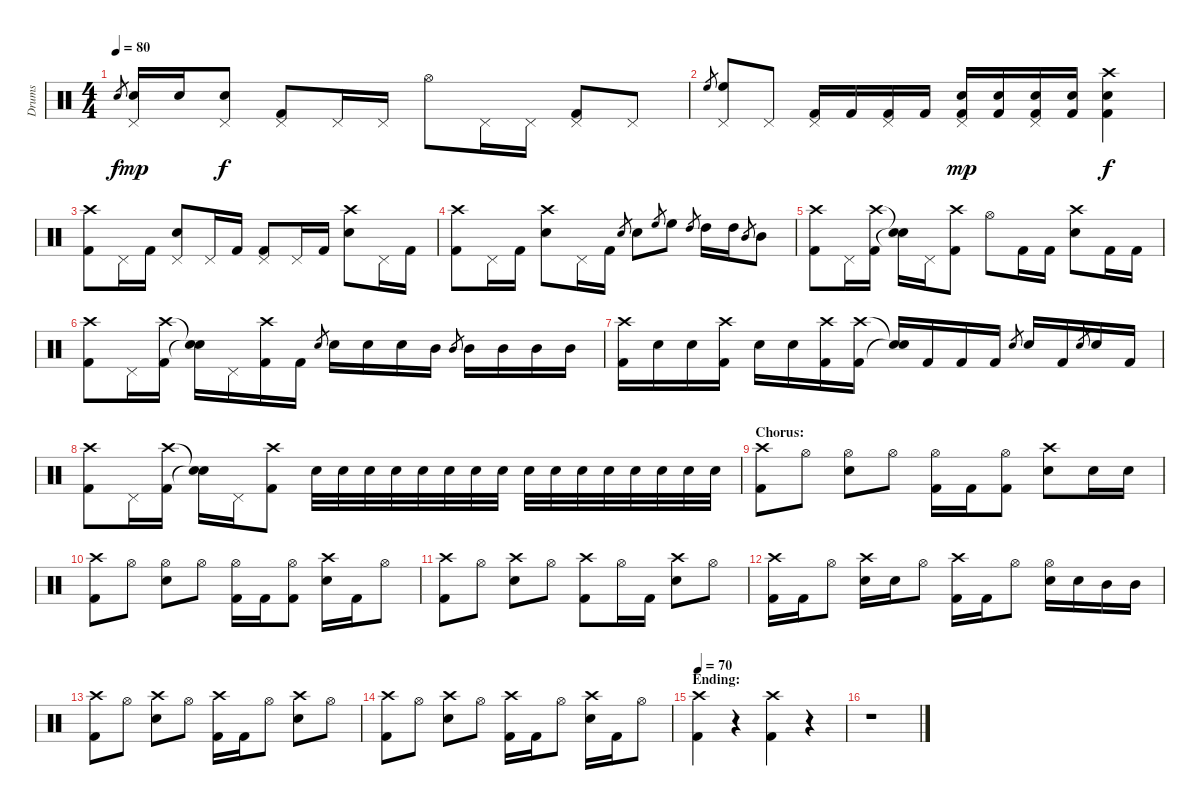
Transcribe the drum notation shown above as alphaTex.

\track ("Drums" "Drums") {instrument percussion}
\staff {score}
\articulation defaults
\ts (4 4)
\tempo 80
\clef neutral
\ks c "Electric Snare (hit)".8{gr dy f}
("Pedal Hi-Hat (hit)" "Electric Snare (hit)").16{dy mp} "Electric Snare (hit)".16 ("Pedal Hi-Hat (hit)" "Electric Snare (hit)").8{dy f} ("Pedal Hi-Hat (hit)" "Kick (hit) 2").8 "Pedal Hi-Hat (hit)".16 "Pedal Hi-Hat (hit)".16 "Hi-Hat (open)".8 "Pedal Hi-Hat (hit)".16 "Pedal Hi-Hat (hit)".16 ("Pedal Hi-Hat (hit)" "Kick (hit) 2").8 "Pedal Hi-Hat (hit)".8 |
"High Floor Tom (hit)".8{gr} ("Pedal Hi-Hat (hit)" "High Floor Tom (hit)").8 "Pedal Hi-Hat (hit)".8 ("Pedal Hi-Hat (hit)" "Kick (hit) 2").16{volume 8} "Kick (hit) 2".16 ("Pedal Hi-Hat (hit)" "Kick (hit) 2").16 "Kick (hit) 2".16 ("Pedal Hi-Hat (hit)" "Electric Snare (hit)" "Kick (hit) 2").16{dy mp} ("Electric Snare (hit)" "Kick (hit) 2").16 ("Pedal Hi-Hat (hit)" "Electric Snare (hit)" "Kick (hit) 2").16 ("Electric Snare (hit)" "Kick (hit) 2").16 ("Crash high (hit)" "Electric Snare (hit)" "Kick (hit) 2").4{dy f} |
("Crash high (hit)" "Kick (hit) 2").8{volume 10} "Pedal Hi-Hat (hit)".16 "Kick (hit) 2".16 ("Pedal Hi-Hat (hit)" "Electric Snare (hit)").8 "Pedal Hi-Hat (hit)".16 "Kick (hit) 2".16 ("Pedal Hi-Hat (hit)" "Kick (hit) 2").8 "Pedal Hi-Hat (hit)".16 "Kick (hit) 2".16 ("Crash high (hit)" "Electric Snare (hit)").8 "Pedal Hi-Hat (hit)".16 "Kick (hit) 2".16 |
("Crash high (hit)" "Kick (hit) 2").8 "Pedal Hi-Hat (hit)".16 "Kick (hit) 2".16 ("Crash high (hit)" "Electric Snare (hit)").8 "Pedal Hi-Hat (hit)".16 "Kick (hit) 2".16 "Electric Snare (hit)".8{gr} "Electric Snare (hit)".8 "High Floor Tom (hit)".8{gr} "High Floor Tom (hit)".8 "High Tom (hit)".8{gr} "High Tom (hit)".16 "High Tom (hit)".16 "Mid Tom (hit)".8{gr} "Mid Tom (hit)".8 |
("Crash high (hit)" "Kick (hit) 2").8{volume 12} "Pedal Hi-Hat (hit)".16 ("Crash high (hit)" "Kick (hit) 2").16 ("Snare (hit)"{t} "Snare (hit)"{t}).16 "Pedal Hi-Hat (hit)".16 ("Crash high (hit)" "Kick (hit) 2").8 "Hi-Hat (open)".8 "Kick (hit) 2".16 "Kick (hit) 2".16 ("Crash high (hit)" "Electric Snare (hit)").8 "Kick (hit) 2".16 "Kick (hit) 2".16 |
("Crash high (hit)" "Kick (hit) 2").8 "Pedal Hi-Hat (hit)".16 ("Crash high (hit)" "Kick (hit) 2").16 ("Snare (hit)"{t} "Snare (hit)"{t}).16 "Pedal Hi-Hat (hit)".16 ("Crash high (hit)" "Kick (hit) 2").16 "Kick (hit) 2".16 "Electric Snare (hit)".8{gr} "Electric Snare (hit)".16 "Electric Snare (hit)".16 "Electric Snare (hit)".16 "Mid Tom (hit)".16 "Mid Tom (hit)".8{gr} "Mid Tom (hit)".16 "Mid Tom (hit)".16 "Mid Tom (hit)".16 "Mid Tom (hit)".16 |
("Crash high (hit)" "Kick (hit) 2").16 "Electric Snare (hit)".16 "Electric Snare (hit)".16 ("Crash high (hit)" "Kick (hit) 2").16 "Electric Snare (hit)".16 "Electric Snare (hit)".16 ("Crash high (hit)" "Kick (hit) 2").16 ("Crash high (hit)" "Kick (hit) 2").16 ("Snare (hit)"{t} "Snare (hit)"{t}).16 "Kick (hit) 2".16 "Kick (hit) 2".16 "Kick (hit) 2".16 "Electric Snare (hit)".8{gr} "Electric Snare (hit)".16 "Kick (hit) 2".16 "Electric Snare (hit)".8{gr} "Electric Snare (hit)".16 "Kick (hit) 2".16 |
("Crash high (hit)" "Kick (hit) 2").8 "Pedal Hi-Hat (hit)".16 ("Crash high (hit)" "Kick (hit) 2").16 ("Snare (hit)"{t} "Snare (hit)"{t}).16 "Pedal Hi-Hat (hit)".16 ("Crash high (hit)" "Kick (hit) 2").8 "Electric Snare (hit)".32 "Electric Snare (hit)".32 "Electric Snare (hit)".32 "Electric Snare (hit)".32 "Electric Snare (hit)".32 "Electric Snare (hit)".32 "Electric Snare (hit)".32 "Electric Snare (hit)".32 "Electric Snare (hit)".32 "Electric Snare (hit)".32 "Electric Snare (hit)".32 "Electric Snare (hit)".32 "Electric Snare (hit)".32 "Electric Snare (hit)".32 "Electric Snare (hit)".32 "Electric Snare (hit)".32 |
\section ("" "Chorus:")
("Crash high (hit)" "Kick (hit) 2").8 "Hi-Hat (open)".8 ("Hi-Hat (open)" "Electric Snare (hit)").8 "Hi-Hat (open)".8 ("Hi-Hat (open)" "Kick (hit) 2").16 "Kick (hit) 2".16 ("Hi-Hat (open)" "Kick (hit) 2").8 ("Crash high (hit)" "Electric Snare (hit)").8 "Electric Snare (hit)".16 "Electric Snare (hit)".16 |
("Crash high (hit)" "Kick (hit) 2").8 "Hi-Hat (open)".8 ("Hi-Hat (open)" "Electric Snare (hit)").8 "Hi-Hat (open)".8 ("Hi-Hat (open)" "Kick (hit) 2").16 "Kick (hit) 2".16 ("Hi-Hat (open)" "Kick (hit) 2").8 ("Crash high (hit)" "Electric Snare (hit)").16 "Kick (hit) 2".16 "Hi-Hat (open)".8 |
("Crash high (hit)" "Kick (hit) 2").8 "Hi-Hat (open)".8 ("Crash high (hit)" "Electric Snare (hit)").8 "Hi-Hat (open)".8 ("Crash high (hit)" "Kick (hit) 2").8 "Hi-Hat (open)".16 "Kick (hit) 2".16 ("Crash high (hit)" "Electric Snare (hit)").8 "Hi-Hat (open)".8 |
("Crash high (hit)" "Kick (hit) 2").16 "Kick (hit) 2".16 "Hi-Hat (open)".8 ("Crash high (hit)" "Electric Snare (hit)").16 "Electric Snare (hit)".16 "Hi-Hat (open)".8 ("Crash high (hit)" "Kick (hit) 2").16 "Kick (hit) 2".16 "Hi-Hat (open)".8 ("Hi-Hat (open)" "Electric Snare (hit)").16 "Electric Snare (hit)".16 "Mid Tom (hit)".16 "Mid Tom (hit)".16 |
("Crash high (hit)" "Kick (hit) 2").8 "Hi-Hat (open)".8 ("Crash high (hit)" "Electric Snare (hit)").8 "Hi-Hat (open)".8 ("Crash high (hit)" "Kick (hit) 2").16 "Kick (hit) 2".16 "Hi-Hat (open)".8 ("Crash high (hit)" "Electric Snare (hit)").8 "Hi-Hat (open)".8 |
("Crash high (hit)" "Kick (hit) 2").8 "Hi-Hat (open)".8 ("Crash high (hit)" "Electric Snare (hit)").8 "Hi-Hat (open)".8 ("Crash high (hit)" "Kick (hit) 2").16 "Kick (hit) 2".16 "Hi-Hat (open)".8 ("Crash high (hit)" "Electric Snare (hit)").16 "Kick (hit) 2".16 "Hi-Hat (open)".8 |
\section ("" "Ending:")
\tempo 70
("Crash high (hit)" "Kick (hit) 2").4 r.4 ("Crash high (hit)" "Kick (hit) 2").4 r.4 |
r.1
